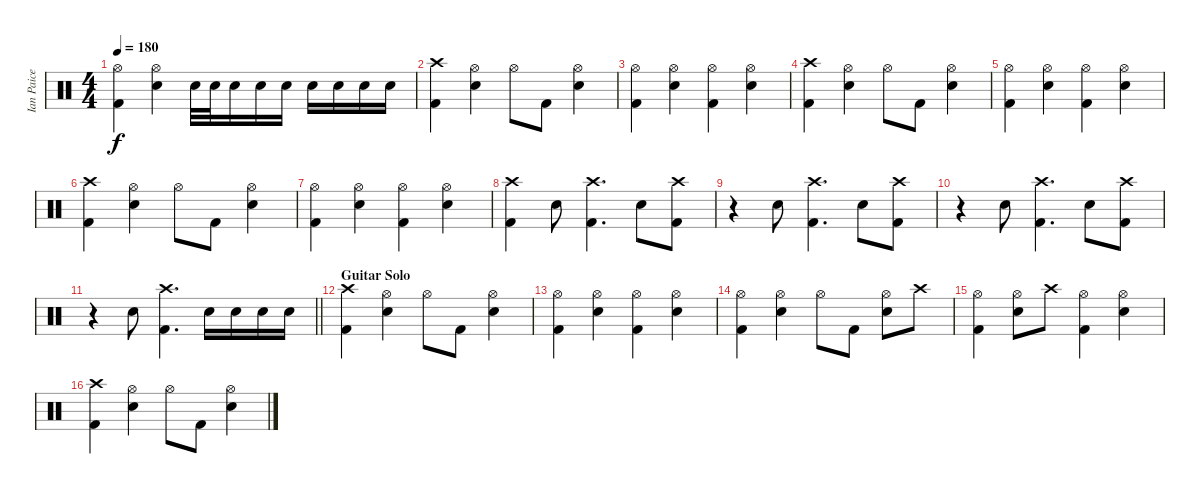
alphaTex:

\track ("Ian Paice" "Ian Paice") {instrument percussion}
\staff {score}
\articulation defaults
\ts (4 4)
\tempo 180
\clef neutral
\ks aminor
("Hi-Hat (open)" "Kick (hit) 2").4{dy f} ("Hi-Hat (open)" "Snare (hit) 2").4 "Snare (hit) 2".32 "Snare (hit) 2".32 "Snare (hit) 2".16 "Snare (hit) 2".16 "Snare (hit) 2".16 "Snare (hit) 2".16 "Snare (hit) 2".16 "Snare (hit) 2".16 "Snare (hit) 2".16 |
("Crash high (hit)" "Kick (hit) 2").4 ("Hi-Hat (open)" "Snare (hit) 2").4 "Hi-Hat (open)".8 "Kick (hit) 2".8 ("Hi-Hat (open)" "Snare (hit) 2").4 |
("Hi-Hat (open)" "Kick (hit) 2").4 ("Hi-Hat (open)" "Snare (hit) 2").4 ("Hi-Hat (open)" "Kick (hit) 2").4 ("Hi-Hat (open)" "Snare (hit) 2").4 |
("Crash high (hit)" "Kick (hit) 2").4 ("Hi-Hat (open)" "Snare (hit) 2").4 "Hi-Hat (open)".8 "Kick (hit) 2".8 ("Hi-Hat (open)" "Snare (hit) 2").4 |
("Hi-Hat (open)" "Kick (hit) 2").4 ("Hi-Hat (open)" "Snare (hit) 2").4 ("Hi-Hat (open)" "Kick (hit) 2").4 ("Hi-Hat (open)" "Snare (hit) 2").4 |
("Crash high (hit)" "Kick (hit) 2").4 ("Hi-Hat (open)" "Snare (hit) 2").4 "Hi-Hat (open)".8 "Kick (hit) 2".8 ("Hi-Hat (open)" "Snare (hit) 2").4 |
("Hi-Hat (open)" "Kick (hit) 2").4 ("Hi-Hat (open)" "Snare (hit) 2").4 ("Hi-Hat (open)" "Kick (hit) 2").4 ("Hi-Hat (open)" "Snare (hit) 2").4 |
("Crash high (hit)" "Kick (hit) 2").4 "Snare (hit) 2".8 ("Crash high (hit)" "Kick (hit) 2").4{d} "Snare (hit) 2".8 ("Crash high (hit)" "Kick (hit) 2").8 |
r.4 "Snare (hit) 2".8 ("Crash high (hit)" "Kick (hit) 2").4{d} "Snare (hit) 2".8 ("Crash high (hit)" "Kick (hit) 2").8 |
r.4 "Snare (hit) 2".8 ("Crash high (hit)" "Kick (hit) 2").4{d} "Snare (hit) 2".8 ("Crash high (hit)" "Kick (hit) 2").8 |
\barLineRight lightlight
r.4 "Snare (hit) 2".8 ("Crash high (hit)" "Kick (hit) 2").4{d} "Snare (hit) 2".16 "Snare (hit) 2".16 "Snare (hit) 2".16 "Snare (hit) 2".16 |
\section ("" "Guitar Solo")
("Crash high (hit)" "Kick (hit) 2").4 ("Hi-Hat (open)" "Snare (hit) 2").4 "Hi-Hat (open)".8 "Kick (hit) 2".8 ("Hi-Hat (open)" "Snare (hit) 2").4 |
("Hi-Hat (open)" "Kick (hit) 2").4 ("Hi-Hat (open)" "Snare (hit) 2").4 ("Hi-Hat (open)" "Kick (hit) 2").4 ("Hi-Hat (open)" "Snare (hit) 2").4 |
("Hi-Hat (open)" "Kick (hit) 2").4 ("Hi-Hat (open)" "Snare (hit) 2").4 "Hi-Hat (open)".8 "Kick (hit) 2".8 ("Hi-Hat (open)" "Snare (hit) 2").8 "Crash high (hit)".8 |
("Hi-Hat (open)" "Kick (hit) 2").4 ("Hi-Hat (open)" "Snare (hit) 2").8 "Crash high (hit)".8 ("Hi-Hat (open)" "Kick (hit) 2").4 ("Hi-Hat (open)" "Snare (hit) 2").4 |
("Crash high (hit)" "Kick (hit) 2").4 ("Hi-Hat (open)" "Snare (hit) 2").4 "Hi-Hat (open)".8 "Kick (hit) 2".8 ("Hi-Hat (open)" "Snare (hit) 2").4
